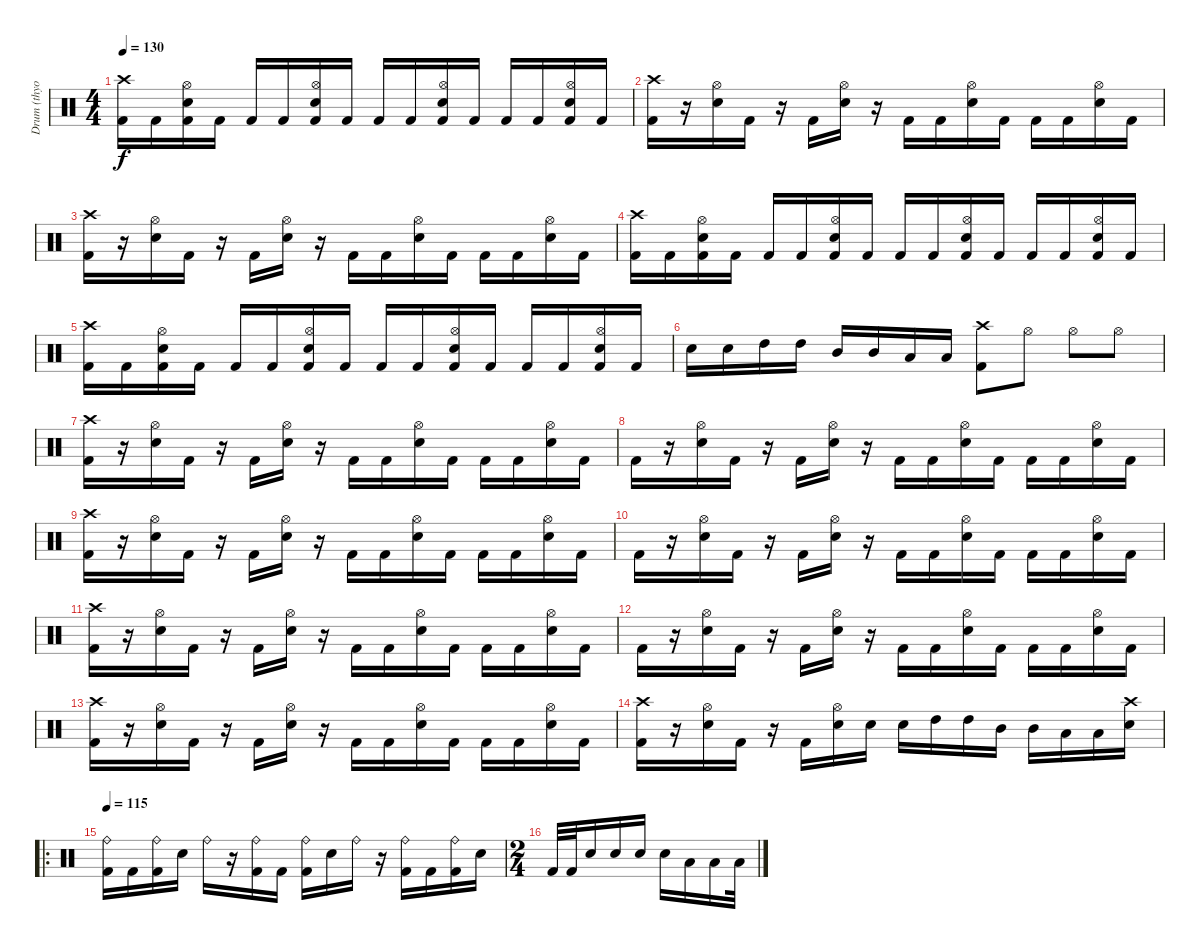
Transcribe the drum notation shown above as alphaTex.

\track ("Drum (thyo)" "Drum (thyo") {instrument percussion}
\staff {score}
\articulation defaults
\ts (4 4)
\tempo 130
\clef neutral
\ks c
("Crash high (hit)" "Kick (hit) 2").16{dy f} "Kick (hit) 2".16 ("Hi-Hat (open)" "Electric Snare (hit)" "Kick (hit) 2").16 "Kick (hit) 2".16 "Kick (hit) 2".16 "Kick (hit) 2".16 ("Hi-Hat (open)" "Electric Snare (hit)" "Kick (hit) 2").16 "Kick (hit) 2".16 "Kick (hit) 2".16 "Kick (hit) 2".16 ("Hi-Hat (open)" "Electric Snare (hit)" "Kick (hit) 2").16 "Kick (hit) 2".16 "Kick (hit) 2".16 "Kick (hit) 2".16 ("Hi-Hat (open)" "Electric Snare (hit)" "Kick (hit) 2").16 "Kick (hit) 2".16 |
("Crash high (hit)" "Kick (hit) 2").16 r.16 ("Hi-Hat (open)" "Electric Snare (hit)").16 "Kick (hit) 2".16 r.16 "Kick (hit) 2".16 ("Hi-Hat (open)" "Electric Snare (hit)").16 r.16 "Kick (hit) 2".16 "Kick (hit) 2".16 ("Hi-Hat (open)" "Electric Snare (hit)").16 "Kick (hit) 2".16 "Kick (hit) 2".16 "Kick (hit) 2".16 ("Hi-Hat (open)" "Electric Snare (hit)").16 "Kick (hit) 2".16 |
("Crash high (hit)" "Kick (hit) 2").16 r.16 ("Hi-Hat (open)" "Electric Snare (hit)").16 "Kick (hit) 2".16 r.16 "Kick (hit) 2".16 ("Hi-Hat (open)" "Electric Snare (hit)").16 r.16 "Kick (hit) 2".16 "Kick (hit) 2".16 ("Hi-Hat (open)" "Electric Snare (hit)").16 "Kick (hit) 2".16 "Kick (hit) 2".16 "Kick (hit) 2".16 ("Hi-Hat (open)" "Electric Snare (hit)").16 "Kick (hit) 2".16 |
("Crash high (hit)" "Kick (hit) 2").16 "Kick (hit) 2".16 ("Hi-Hat (open)" "Electric Snare (hit)" "Kick (hit) 2").16 "Kick (hit) 2".16 "Kick (hit) 2".16 "Kick (hit) 2".16 ("Hi-Hat (open)" "Electric Snare (hit)" "Kick (hit) 2").16 "Kick (hit) 2".16 "Kick (hit) 2".16 "Kick (hit) 2".16 ("Hi-Hat (open)" "Electric Snare (hit)" "Kick (hit) 2").16 "Kick (hit) 2".16 "Kick (hit) 2".16 "Kick (hit) 2".16 ("Hi-Hat (open)" "Electric Snare (hit)" "Kick (hit) 2").16 "Kick (hit) 2".16 |
("Crash high (hit)" "Kick (hit) 2").16 "Kick (hit) 2".16 ("Hi-Hat (open)" "Electric Snare (hit)" "Kick (hit) 2").16 "Kick (hit) 2".16 "Kick (hit) 2".16 "Kick (hit) 2".16 ("Hi-Hat (open)" "Electric Snare (hit)" "Kick (hit) 2").16 "Kick (hit) 2".16 "Kick (hit) 2".16 "Kick (hit) 2".16 ("Hi-Hat (open)" "Electric Snare (hit)" "Kick (hit) 2").16 "Kick (hit) 2".16 "Kick (hit) 2".16 "Kick (hit) 2".16 ("Hi-Hat (open)" "Electric Snare (hit)" "Kick (hit) 2").16 "Kick (hit) 2".16 |
"Electric Snare (hit)".16 "Electric Snare (hit)".16 "High Tom (hit)".16 "High Tom (hit)".16 "Mid Tom (hit)".16 "Mid Tom (hit)".16 "Low Tom (hit)".16 "Low Tom (hit)".16 ("Crash high (hit)" "Kick (hit) 2").8 "Hi-Hat (open)".8 "Hi-Hat (open)".8 "Hi-Hat (open)".8 |
("Crash high (hit)" "Kick (hit) 2").16 r.16 ("Hi-Hat (open)" "Electric Snare (hit)").16 "Kick (hit) 2".16 r.16 "Kick (hit) 2".16 ("Hi-Hat (open)" "Electric Snare (hit)").16 r.16 "Kick (hit) 2".16 "Kick (hit) 2".16 ("Hi-Hat (open)" "Electric Snare (hit)").16 "Kick (hit) 2".16 "Kick (hit) 2".16 "Kick (hit) 2".16 ("Hi-Hat (open)" "Electric Snare (hit)").16 "Kick (hit) 2".16 |
"Kick (hit) 2".16 r.16 ("Hi-Hat (open)" "Electric Snare (hit)").16 "Kick (hit) 2".16 r.16 "Kick (hit) 2".16 ("Hi-Hat (open)" "Electric Snare (hit)").16 r.16 "Kick (hit) 2".16 "Kick (hit) 2".16 ("Hi-Hat (open)" "Electric Snare (hit)").16 "Kick (hit) 2".16 "Kick (hit) 2".16 "Kick (hit) 2".16 ("Hi-Hat (open)" "Electric Snare (hit)").16 "Kick (hit) 2".16 |
("Crash high (hit)" "Kick (hit) 2").16 r.16 ("Hi-Hat (open)" "Electric Snare (hit)").16 "Kick (hit) 2".16 r.16 "Kick (hit) 2".16 ("Hi-Hat (open)" "Electric Snare (hit)").16 r.16 "Kick (hit) 2".16 "Kick (hit) 2".16 ("Hi-Hat (open)" "Electric Snare (hit)").16 "Kick (hit) 2".16 "Kick (hit) 2".16 "Kick (hit) 2".16 ("Hi-Hat (open)" "Electric Snare (hit)").16 "Kick (hit) 2".16 |
"Kick (hit) 2".16 r.16 ("Hi-Hat (open)" "Electric Snare (hit)").16 "Kick (hit) 2".16 r.16 "Kick (hit) 2".16 ("Hi-Hat (open)" "Electric Snare (hit)").16 r.16 "Kick (hit) 2".16 "Kick (hit) 2".16 ("Hi-Hat (open)" "Electric Snare (hit)").16 "Kick (hit) 2".16 "Kick (hit) 2".16 "Kick (hit) 2".16 ("Hi-Hat (open)" "Electric Snare (hit)").16 "Kick (hit) 2".16 |
("Crash high (hit)" "Kick (hit) 2").16 r.16 ("Hi-Hat (open)" "Electric Snare (hit)").16 "Kick (hit) 2".16 r.16 "Kick (hit) 2".16 ("Hi-Hat (open)" "Electric Snare (hit)").16 r.16 "Kick (hit) 2".16 "Kick (hit) 2".16 ("Hi-Hat (open)" "Electric Snare (hit)").16 "Kick (hit) 2".16 "Kick (hit) 2".16 "Kick (hit) 2".16 ("Hi-Hat (open)" "Electric Snare (hit)").16 "Kick (hit) 2".16 |
"Kick (hit) 2".16 r.16 ("Hi-Hat (open)" "Electric Snare (hit)").16 "Kick (hit) 2".16 r.16 "Kick (hit) 2".16 ("Hi-Hat (open)" "Electric Snare (hit)").16 r.16 "Kick (hit) 2".16 "Kick (hit) 2".16 ("Hi-Hat (open)" "Electric Snare (hit)").16 "Kick (hit) 2".16 "Kick (hit) 2".16 "Kick (hit) 2".16 ("Hi-Hat (open)" "Electric Snare (hit)").16 "Kick (hit) 2".16 |
("Crash high (hit)" "Kick (hit) 2").16 r.16 ("Hi-Hat (open)" "Electric Snare (hit)").16 "Kick (hit) 2".16 r.16 "Kick (hit) 2".16 ("Hi-Hat (open)" "Electric Snare (hit)").16 r.16 "Kick (hit) 2".16 "Kick (hit) 2".16 ("Hi-Hat (open)" "Electric Snare (hit)").16 "Kick (hit) 2".16 "Kick (hit) 2".16 "Kick (hit) 2".16 ("Hi-Hat (open)" "Electric Snare (hit)").16 "Kick (hit) 2".16 |
("Crash high (hit)" "Kick (hit) 2").16 r.16 ("Hi-Hat (open)" "Electric Snare (hit)").16 "Kick (hit) 2".16 r.16 "Kick (hit) 2".16 ("Hi-Hat (open)" "Electric Snare (hit)").16 "Electric Snare (hit)".16 "Electric Snare (hit)".16 "High Tom (hit)".16 "High Tom (hit)".16 "Mid Tom (hit)".16 "Mid Tom (hit)".16 "Low Tom (hit)".16 "Low Tom (hit)".16 ("Crash high (hit)" "Electric Snare (hit)").16 |
\ro
\tempo 115
("Ride (bell)" "Kick (hit) 2").16 "Kick (hit) 2".16 ("Ride (bell)" "Kick (hit) 2").16 "Electric Snare (hit)".16 "Ride (bell)".16 r.16 ("Ride (bell)" "Kick (hit) 2").16 "Kick (hit) 2".16 ("Ride (bell)" "Kick (hit) 2").16 "Electric Snare (hit)".16 "Ride (bell)".16 r.16 ("Ride (bell)" "Kick (hit) 2").16 "Kick (hit) 2".16 ("Ride (bell)" "Kick (hit) 2").16 "Electric Snare (hit)".16 |
\ts (2 4)
"Kick (hit) 2".32 "Kick (hit) 2".32 "Electric Snare (hit)".16 "Electric Snare (hit)".16 "Electric Snare (hit)".16 "Electric Snare (hit)".16 "Low Tom (hit)".16 "Low Tom (hit)".16 "Low Tom (hit)".32
